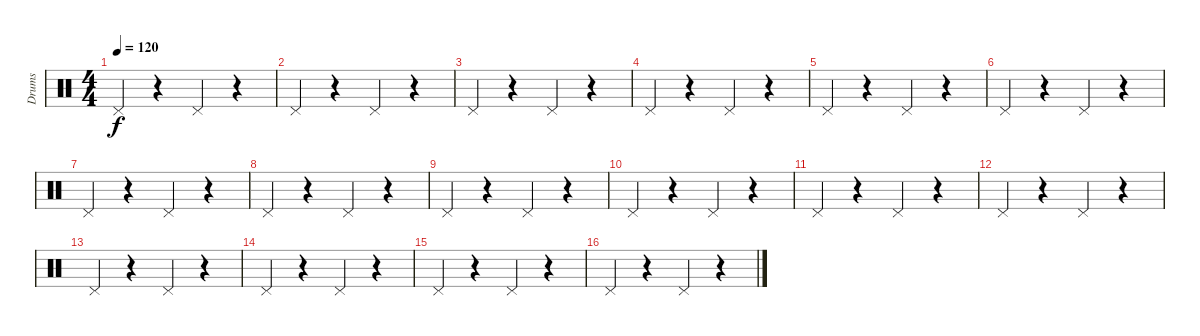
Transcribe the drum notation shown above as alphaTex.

\track ("Drums" "Drums") {instrument percussion}
\staff {score}
\articulation defaults
\ts (4 4)
\tempo 120
\clef neutral
\ks c "Pedal Hi-Hat (hit)".4{dy f}
r.4 "Pedal Hi-Hat (hit)".4 r.4 |
"Pedal Hi-Hat (hit)".4 r.4 "Pedal Hi-Hat (hit)".4 r.4 |
"Pedal Hi-Hat (hit)".4 r.4 "Pedal Hi-Hat (hit)".4 r.4 |
"Pedal Hi-Hat (hit)".4 r.4 "Pedal Hi-Hat (hit)".4 r.4 |
"Pedal Hi-Hat (hit)".4 r.4 "Pedal Hi-Hat (hit)".4 r.4 |
"Pedal Hi-Hat (hit)".4 r.4 "Pedal Hi-Hat (hit)".4 r.4 |
"Pedal Hi-Hat (hit)".4 r.4 "Pedal Hi-Hat (hit)".4 r.4 |
"Pedal Hi-Hat (hit)".4 r.4 "Pedal Hi-Hat (hit)".4 r.4 |
"Pedal Hi-Hat (hit)".4 r.4 "Pedal Hi-Hat (hit)".4 r.4 |
"Pedal Hi-Hat (hit)".4 r.4 "Pedal Hi-Hat (hit)".4 r.4 |
"Pedal Hi-Hat (hit)".4 r.4 "Pedal Hi-Hat (hit)".4 r.4 |
"Pedal Hi-Hat (hit)".4 r.4 "Pedal Hi-Hat (hit)".4 r.4 |
"Pedal Hi-Hat (hit)".4 r.4 "Pedal Hi-Hat (hit)".4 r.4 |
"Pedal Hi-Hat (hit)".4 r.4 "Pedal Hi-Hat (hit)".4 r.4 |
"Pedal Hi-Hat (hit)".4 r.4 "Pedal Hi-Hat (hit)".4 r.4 |
"Pedal Hi-Hat (hit)".4 r.4 "Pedal Hi-Hat (hit)".4 r.4
